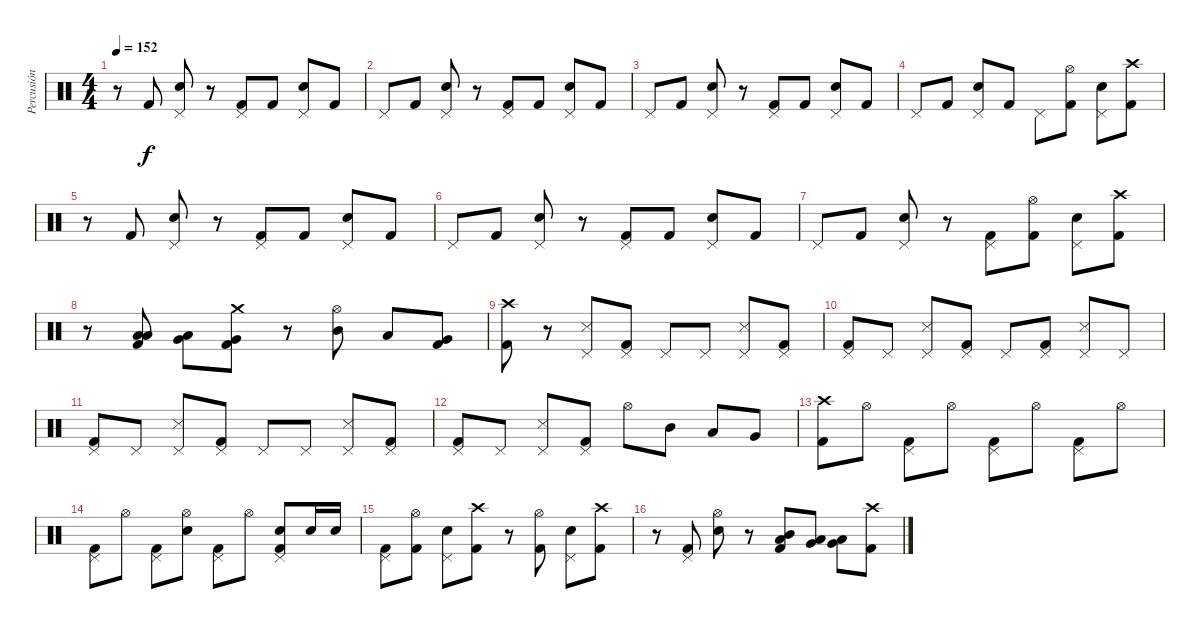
\track ("Percusión" "Percusión") {instrument percussion}
\staff {score}
\articulation defaults
\ts (4 4)
\tempo 152
\clef neutral
\ks c
r.8{dy f} "Kick (hit) 2".8 ("Snare (hit) 2" "Pedal Hi-Hat (hit)").8 r.8 ("Kick (hit) 2" "Pedal Hi-Hat (hit)").8 "Kick (hit) 2".8 ("Snare (hit) 2" "Pedal Hi-Hat (hit)").8 "Kick (hit) 2".8 |
"Pedal Hi-Hat (hit)".8 "Kick (hit) 2".8 ("Snare (hit) 2" "Pedal Hi-Hat (hit)").8 r.8 ("Kick (hit) 2" "Pedal Hi-Hat (hit)").8 "Kick (hit) 2".8 ("Snare (hit) 2" "Pedal Hi-Hat (hit)").8 "Kick (hit) 2".8 |
"Pedal Hi-Hat (hit)".8 "Kick (hit) 2".8 ("Snare (hit) 2" "Pedal Hi-Hat (hit)").8 r.8 ("Kick (hit) 2" "Pedal Hi-Hat (hit)").8 "Kick (hit) 2".8 ("Snare (hit) 2" "Pedal Hi-Hat (hit)").8 "Kick (hit) 2".8 |
"Pedal Hi-Hat (hit)".8 "Kick (hit) 2".8 ("Snare (hit) 2" "Pedal Hi-Hat (hit)").8 "Kick (hit) 2".8 "Pedal Hi-Hat (hit)".8 ("Kick (hit) 2" "Hi-Hat (open)").8 ("Snare (hit) 2" "Pedal Hi-Hat (hit)").8 ("Kick (hit) 2" "Crash high (hit)").8 |
r.8 "Kick (hit) 2".8 ("Snare (hit) 2" "Pedal Hi-Hat (hit)").8 r.8 ("Kick (hit) 2" "Pedal Hi-Hat (hit)").8 "Kick (hit) 2".8 ("Snare (hit) 2" "Pedal Hi-Hat (hit)").8 "Kick (hit) 2".8 |
"Pedal Hi-Hat (hit)".8 "Kick (hit) 2".8 ("Snare (hit) 2" "Pedal Hi-Hat (hit)").8 r.8 ("Kick (hit) 2" "Pedal Hi-Hat (hit)").8 "Kick (hit) 2".8 ("Snare (hit) 2" "Pedal Hi-Hat (hit)").8 "Kick (hit) 2".8 |
"Pedal Hi-Hat (hit)".8 "Kick (hit) 2".8 ("Snare (hit) 2" "Pedal Hi-Hat (hit)").8 r.8 ("Kick (hit) 2" "Pedal Hi-Hat (hit)").8 ("Kick (hit) 2" "Hi-Hat (open)").8 ("Snare (hit) 2" "Pedal Hi-Hat (hit)").8 ("Kick (hit) 2" "Crash high (hit)").8 |
r.8 ("Kick (hit) 2" "Low Tom (hit)" "Low Floor Tom (hit)").8 ("Very Low Tom (hit)" "Low Floor Tom (hit)").8 ("Kick (hit) 2" "Very Low Tom (hit)" "Crash medium (hit)").8 r.8 ("Mid Tom (hit)" "Hi-Hat (open)").8 "Low Tom (hit)".8 ("Kick (hit) 2" "Very Low Tom (hit)").8 |
("Kick (hit) 2" "Crash high (hit)").8 r.8 ("Pedal Hi-Hat (hit)" "Metronome (hit)").8 ("Kick (hit) 2" "Pedal Hi-Hat (hit)").8 "Pedal Hi-Hat (hit)".8 "Pedal Hi-Hat (hit)".8 ("Pedal Hi-Hat (hit)" "Metronome (hit)").8 ("Kick (hit) 2" "Pedal Hi-Hat (hit)").8 |
("Kick (hit) 2" "Pedal Hi-Hat (hit)").8 "Pedal Hi-Hat (hit)".8 ("Pedal Hi-Hat (hit)" "Metronome (hit)").8 ("Kick (hit) 2" "Pedal Hi-Hat (hit)").8 "Pedal Hi-Hat (hit)".8 ("Kick (hit) 2" "Pedal Hi-Hat (hit)").8 ("Pedal Hi-Hat (hit)" "Metronome (hit)").8 "Pedal Hi-Hat (hit)".8 |
("Kick (hit) 2" "Pedal Hi-Hat (hit)").8 "Pedal Hi-Hat (hit)".8 ("Pedal Hi-Hat (hit)" "Metronome (hit)").8 ("Kick (hit) 2" "Pedal Hi-Hat (hit)").8 "Pedal Hi-Hat (hit)".8 "Pedal Hi-Hat (hit)".8 ("Pedal Hi-Hat (hit)" "Metronome (hit)").8 ("Kick (hit) 2" "Pedal Hi-Hat (hit)").8 |
("Kick (hit) 2" "Pedal Hi-Hat (hit)").8 "Pedal Hi-Hat (hit)".8 ("Pedal Hi-Hat (hit)" "Metronome (hit)").8 ("Kick (hit) 2" "Pedal Hi-Hat (hit)").8 "Hi-Hat (open)".8 "Mid Tom (hit)".8 "Low Tom (hit)".8 "Very Low Tom (hit)".8 |
("Kick (hit) 2" "Crash high (hit)").8 "Hi-Hat (open)".8 ("Kick (hit) 2" "Pedal Hi-Hat (hit)").8 "Hi-Hat (open)".8 ("Kick (hit) 2" "Pedal Hi-Hat (hit)").8 "Hi-Hat (open)".8 ("Kick (hit) 2" "Pedal Hi-Hat (hit)").8 "Hi-Hat (open)".8 |
("Kick (hit) 2" "Pedal Hi-Hat (hit)").8 "Hi-Hat (open)".8 ("Kick (hit) 2" "Pedal Hi-Hat (hit)").8 ("Hi-Hat (open)" "Snare (hit) 2").8 ("Kick (hit) 2" "Pedal Hi-Hat (hit)").8 "Hi-Hat (open)".8 ("Kick (hit) 2" "Pedal Hi-Hat (hit)" "Snare (hit) 2").8 "Snare (hit) 2".16 "Snare (hit) 2".16 |
("Kick (hit) 2" "Pedal Hi-Hat (hit)").8 ("Kick (hit) 2" "Hi-Hat (open)").8 ("Pedal Hi-Hat (hit)" "Snare (hit) 2").8 ("Kick (hit) 2" "Crash high (hit)").8 r.8 ("Kick (hit) 2" "Hi-Hat (open)").8 ("Pedal Hi-Hat (hit)" "Snare (hit) 2").8 ("Kick (hit) 2" "Crash high (hit)").8 |
r.8 ("Kick (hit) 2" "Pedal Hi-Hat (hit)").8 ("Hi-Hat (open)" "Snare (hit) 2").8 r.8 ("Kick (hit) 2" "Mid Tom (hit)" "Low Tom (hit)").8 ("Low Tom (hit)" "Very Low Tom (hit)").8 ("Very Low Tom (hit)" "Low Floor Tom (hit)").8 ("Kick (hit) 2" "Crash high (hit)").8
